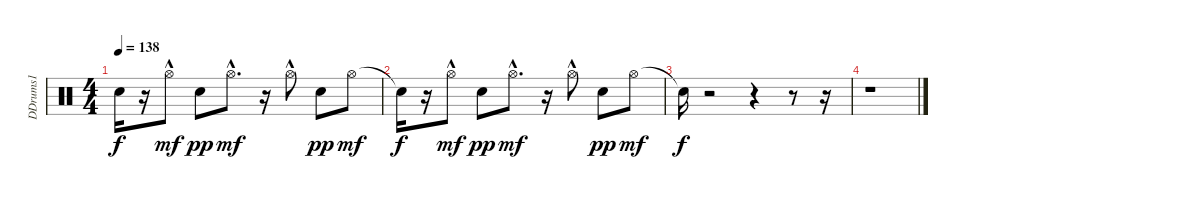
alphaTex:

\track ("DDrums1" "DDrums1") {instrument percussion}
\staff {score}
\articulation defaults
\ts (4 4)
\tempo 138
\clef neutral
\ks c "Snare (hit)"{t}.16{dy f}
r.16 "Hi-Hat (open)"{hac}.8{dy mf} "Electric Snare (hit)".8{dy pp} "Hi-Hat (open)"{hac}.8{d dy mf} r.16 "Hi-Hat (open)"{hac}.8 "Electric Snare (hit)".8{dy pp} "Hi-Hat (open)".8{dy mf} |
"Snare (hit)"{t}.16{dy f} r.16 "Hi-Hat (open)"{hac}.8{dy mf} "Electric Snare (hit)".8{dy pp} "Hi-Hat (open)"{hac}.8{d dy mf} r.16 "Hi-Hat (open)"{hac}.8 "Electric Snare (hit)".8{dy pp} "Hi-Hat (open)".8{dy mf} |
"Snare (hit)"{t}.16{dy f} r.2 r.4 r.8 r.16 |
r.1
